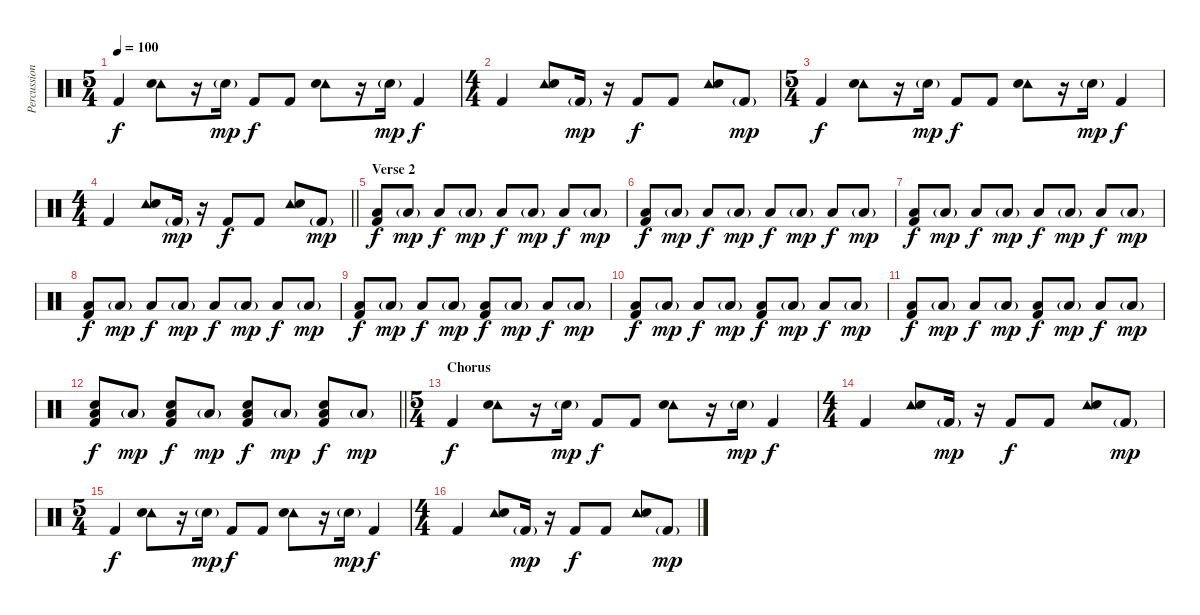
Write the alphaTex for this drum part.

\track ("Percussion" "Percussion") {instrument percussion}
\staff {score}
\articulation defaults
\ts (5 4)
\tempo 100
\clef neutral
\ks c "Kick (hit) 2".4{dy f}
("Tambourine (hit)" "Snare (hit) 2").8 r.16 "Snare (hit) 2"{g}.16{dy mp} "Kick (hit) 2".8{dy f} "Kick (hit) 2".8 ("Tambourine (hit)" "Snare (hit) 2").8 r.16 "Snare (hit) 2"{g}.16{dy mp} "Kick (hit) 2".4{dy f} |
\ts (4 4)
"Kick (hit) 2".4 ("Tambourine (hit)" "Snare (hit) 2").8 "Kick (hit) 2"{g}.16{dy mp} r.16 "Kick (hit) 2".8{dy f} "Kick (hit) 2".8 ("Tambourine (hit)" "Snare (hit) 2").8 "Kick (hit) 2"{g}.8{dy mp} |
\ts (5 4)
"Kick (hit) 2".4{dy f} ("Tambourine (hit)" "Snare (hit) 2").8 r.16 "Snare (hit) 2"{g}.16{dy mp} "Kick (hit) 2".8{dy f} "Kick (hit) 2".8 ("Tambourine (hit)" "Snare (hit) 2").8 r.16 "Snare (hit) 2"{g}.16{dy mp} "Kick (hit) 2".4{dy f} |
\ts (4 4)
\barLineRight lightlight "Kick (hit) 2".4
("Tambourine (hit)" "Snare (hit) 2").8 "Kick (hit) 2"{g}.16{dy mp} r.16 "Kick (hit) 2".8{dy f} "Kick (hit) 2".8 ("Tambourine (hit)" "Snare (hit) 2").8 "Kick (hit) 2"{g}.8{dy mp} |
\section ("" "Verse 2")
("Low Floor Tom (hit)" "Kick (hit) 2").8{dy f volume 3} "Low Floor Tom (hit)"{g}.8{dy mp} "Low Floor Tom (hit)".8{dy f} "Low Floor Tom (hit)"{g}.8{dy mp} "Low Floor Tom (hit)".8{dy f} "Low Floor Tom (hit)"{g}.8{dy mp} "Low Floor Tom (hit)".8{dy f} "Low Floor Tom (hit)"{g}.8{dy mp} |
("Low Floor Tom (hit)" "Kick (hit) 2").8{dy f} "Low Floor Tom (hit)"{g}.8{dy mp} "Low Floor Tom (hit)".8{dy f} "Low Floor Tom (hit)"{g}.8{dy mp} "Low Floor Tom (hit)".8{dy f} "Low Floor Tom (hit)"{g}.8{dy mp} "Low Floor Tom (hit)".8{dy f} "Low Floor Tom (hit)"{g}.8{dy mp} |
("Low Floor Tom (hit)" "Kick (hit) 2").8{dy f} "Low Floor Tom (hit)"{g}.8{dy mp} "Low Floor Tom (hit)".8{dy f} "Low Floor Tom (hit)"{g}.8{dy mp} "Low Floor Tom (hit)".8{dy f} "Low Floor Tom (hit)"{g}.8{dy mp} "Low Floor Tom (hit)".8{dy f} "Low Floor Tom (hit)"{g}.8{dy mp} |
("Low Floor Tom (hit)" "Kick (hit) 2").8{dy f} "Low Floor Tom (hit)"{g}.8{dy mp} "Low Floor Tom (hit)".8{dy f} "Low Floor Tom (hit)"{g}.8{dy mp} "Low Floor Tom (hit)".8{dy f} "Low Floor Tom (hit)"{g}.8{dy mp} "Low Floor Tom (hit)".8{dy f} "Low Floor Tom (hit)"{g}.8{dy mp} |
("Low Floor Tom (hit)" "Kick (hit) 2").8{dy f} "Low Floor Tom (hit)"{g}.8{dy mp} "Low Floor Tom (hit)".8{dy f} "Low Floor Tom (hit)"{g}.8{dy mp} ("Low Floor Tom (hit)" "Kick (hit) 2").8{dy f} "Low Floor Tom (hit)"{g}.8{dy mp} "Low Floor Tom (hit)".8{dy f} "Low Floor Tom (hit)"{g}.8{dy mp} |
("Low Floor Tom (hit)" "Kick (hit) 2").8{dy f} "Low Floor Tom (hit)"{g}.8{dy mp} "Low Floor Tom (hit)".8{dy f} "Low Floor Tom (hit)"{g}.8{dy mp} ("Low Floor Tom (hit)" "Kick (hit) 2").8{dy f} "Low Floor Tom (hit)"{g}.8{dy mp} "Low Floor Tom (hit)".8{dy f} "Low Floor Tom (hit)"{g}.8{dy mp} |
("Low Floor Tom (hit)" "Kick (hit) 2").8{dy f} "Low Floor Tom (hit)"{g}.8{dy mp} "Low Floor Tom (hit)".8{dy f} "Low Floor Tom (hit)"{g}.8{dy mp} ("Low Floor Tom (hit)" "Kick (hit) 2").8{dy f} "Low Floor Tom (hit)"{g}.8{dy mp} "Low Floor Tom (hit)".8{dy f} "Low Floor Tom (hit)"{g}.8{dy mp} |
\barLineRight lightlight
("Snare (hit) 2" "Low Floor Tom (hit)" "Kick (hit) 2").8{dy f} "Low Floor Tom (hit)"{g}.8{dy mp} ("Snare (hit) 2" "Low Floor Tom (hit)" "Kick (hit) 2").8{dy f} "Low Floor Tom (hit)"{g}.8{dy mp} ("Snare (hit) 2" "Low Floor Tom (hit)" "Kick (hit) 2").8{dy f} "Low Floor Tom (hit)"{g}.8{dy mp} ("Snare (hit) 2" "Low Floor Tom (hit)" "Kick (hit) 2").8{dy f} "Low Floor Tom (hit)"{g}.8{dy mp} |
\ts (5 4)
\section ("" "Chorus")
"Kick (hit) 2".4{dy f volume 5} ("Tambourine (hit)" "Snare (hit) 2").8 r.16 "Snare (hit) 2"{g}.16{dy mp} "Kick (hit) 2".8{dy f} "Kick (hit) 2".8 ("Tambourine (hit)" "Snare (hit) 2").8 r.16 "Snare (hit) 2"{g}.16{dy mp} "Kick (hit) 2".4{dy f} |
\ts (4 4)
"Kick (hit) 2".4 ("Tambourine (hit)" "Snare (hit) 2").8 "Kick (hit) 2"{g}.16{dy mp} r.16 "Kick (hit) 2".8{dy f} "Kick (hit) 2".8 ("Tambourine (hit)" "Snare (hit) 2").8 "Kick (hit) 2"{g}.8{dy mp} |
\ts (5 4)
"Kick (hit) 2".4{dy f} ("Tambourine (hit)" "Snare (hit) 2").8 r.16 "Snare (hit) 2"{g}.16{dy mp} "Kick (hit) 2".8{dy f} "Kick (hit) 2".8 ("Tambourine (hit)" "Snare (hit) 2").8 r.16 "Snare (hit) 2"{g}.16{dy mp} "Kick (hit) 2".4{dy f} |
\ts (4 4)
"Kick (hit) 2".4 ("Tambourine (hit)" "Snare (hit) 2").8 "Kick (hit) 2"{g}.16{dy mp} r.16 "Kick (hit) 2".8{dy f} "Kick (hit) 2".8 ("Tambourine (hit)" "Snare (hit) 2").8 "Kick (hit) 2"{g}.8{dy mp}
